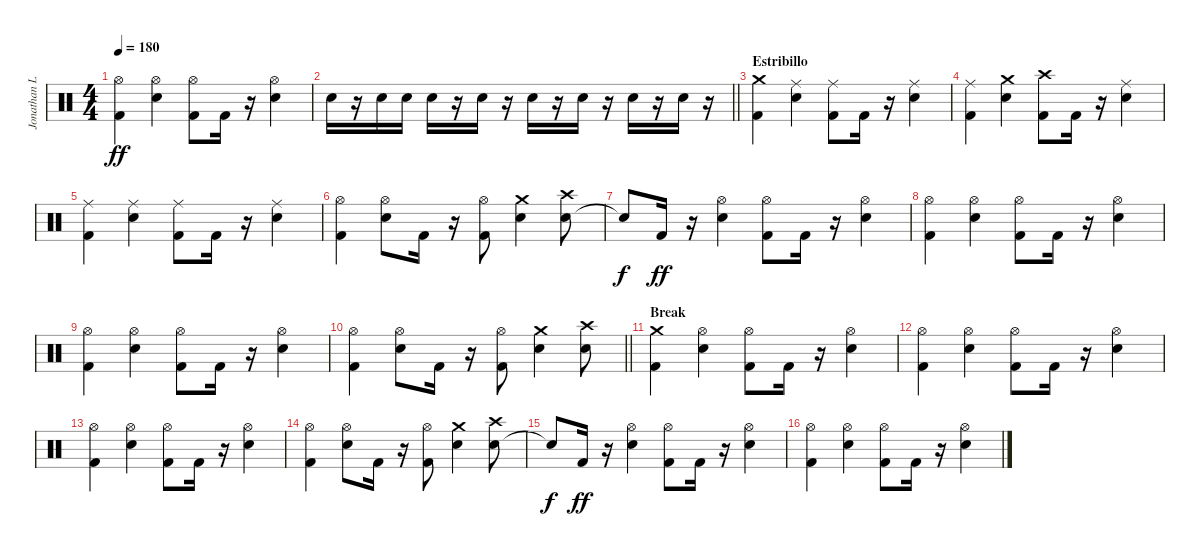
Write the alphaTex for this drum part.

\track ("Jonathan Lòpez" "Jonathan L") {instrument percussion}
\staff {score}
\articulation defaults
\ts (4 4)
\tempo 180
\clef neutral
\ks c
("Kick (hit) 2" "Hi-Hat (open)").4{dy ff} ("Electric Snare (hit)" "Hi-Hat (open)").4 ("Kick (hit) 2" "Hi-Hat (open)").8 "Kick (hit) 2".16 r.16 ("Electric Snare (hit)" "Hi-Hat (open)").4 |
\barLineRight lightlight "Electric Snare (hit)".16
r.16 "Electric Snare (hit)".16 "Electric Snare (hit)".16 "Electric Snare (hit)".16 r.16 "Electric Snare (hit)".16 r.16 "Electric Snare (hit)".16 r.16 "Electric Snare (hit)".16 r.16 "Electric Snare (hit)".16 r.16 "Electric Snare (hit)".16 r.16 |
\section ("" "Estribillo")
("Kick (hit) 2" "Crash medium (hit)").4 ("Electric Snare (hit)" "Ride (middle)").4 ("Kick (hit) 2" "Ride (middle)").8 "Kick (hit) 2".16 r.16 ("Electric Snare (hit)" "Ride (middle)").4 |
("Ride (middle)" "Kick (hit) 2").4 ("Crash medium (hit)" "Electric Snare (hit)").4 ("Crash high (hit)" "Kick (hit) 2").8 "Kick (hit) 2".16 r.16 ("Ride (middle)" "Electric Snare (hit)").4 |
("Kick (hit) 2" "Ride (middle)").4 ("Electric Snare (hit)" "Ride (middle)").4 ("Kick (hit) 2" "Ride (middle)").8 "Kick (hit) 2".16 r.16 ("Electric Snare (hit)" "Ride (middle)").4 |
("Kick (hit) 2" "Hi-Hat (open)").4 ("Electric Snare (hit)" "Hi-Hat (open)").8 "Kick (hit) 2".16 r.16 ("Kick (hit) 2" "Hi-Hat (open)").8 ("Electric Snare (hit)" "Crash medium (hit)").4 ("Electric Snare (hit)" "Crash high (hit)").8 |
"Snare (hit)"{t}.8{dy f} "Kick (hit) 2".16{dy ff} r.16 ("Electric Snare (hit)" "Hi-Hat (open)").4 ("Kick (hit) 2" "Hi-Hat (open)").8 "Kick (hit) 2".16 r.16 ("Electric Snare (hit)" "Hi-Hat (open)").4 |
("Kick (hit) 2" "Hi-Hat (open)").4 ("Electric Snare (hit)" "Hi-Hat (open)").4 ("Kick (hit) 2" "Hi-Hat (open)").8 "Kick (hit) 2".16 r.16 ("Electric Snare (hit)" "Hi-Hat (open)").4 |
("Kick (hit) 2" "Hi-Hat (open)").4 ("Electric Snare (hit)" "Hi-Hat (open)").4 ("Kick (hit) 2" "Hi-Hat (open)").8 "Kick (hit) 2".16 r.16 ("Electric Snare (hit)" "Hi-Hat (open)").4 |
\barLineRight lightlight
("Kick (hit) 2" "Hi-Hat (open)").4 ("Electric Snare (hit)" "Hi-Hat (open)").8 "Kick (hit) 2".16 r.16 ("Kick (hit) 2" "Hi-Hat (open)").8 ("Electric Snare (hit)" "Crash medium (hit)").4 ("Electric Snare (hit)" "Crash high (hit)").8 |
\section ("" "Break")
("Kick (hit) 2" "Crash medium (hit)").4 ("Electric Snare (hit)" "Hi-Hat (open)").4 ("Kick (hit) 2" "Hi-Hat (open)").8 "Kick (hit) 2".16 r.16 ("Electric Snare (hit)" "Hi-Hat (open)").4 |
("Hi-Hat (open)" "Kick (hit) 2").4 ("Hi-Hat (open)" "Electric Snare (hit)").4 ("Hi-Hat (open)" "Kick (hit) 2").8 "Kick (hit) 2".16 r.16 ("Hi-Hat (open)" "Electric Snare (hit)").4 |
("Kick (hit) 2" "Hi-Hat (open)").4 ("Electric Snare (hit)" "Hi-Hat (open)").4 ("Kick (hit) 2" "Hi-Hat (open)").8 "Kick (hit) 2".16 r.16 ("Electric Snare (hit)" "Hi-Hat (open)").4 |
("Kick (hit) 2" "Hi-Hat (open)").4 ("Electric Snare (hit)" "Hi-Hat (open)").8 "Kick (hit) 2".16 r.16 ("Kick (hit) 2" "Hi-Hat (open)").8 ("Electric Snare (hit)" "Crash medium (hit)").4 ("Electric Snare (hit)" "Crash high (hit)").8 |
"Snare (hit)"{t}.8{dy f} "Kick (hit) 2".16{dy ff} r.16 ("Electric Snare (hit)" "Hi-Hat (open)").4 ("Kick (hit) 2" "Hi-Hat (open)").8 "Kick (hit) 2".16 r.16 ("Electric Snare (hit)" "Hi-Hat (open)").4 |
("Kick (hit) 2" "Hi-Hat (open)").4 ("Electric Snare (hit)" "Hi-Hat (open)").4 ("Kick (hit) 2" "Hi-Hat (open)").8 "Kick (hit) 2".16 r.16 ("Electric Snare (hit)" "Hi-Hat (open)").4
